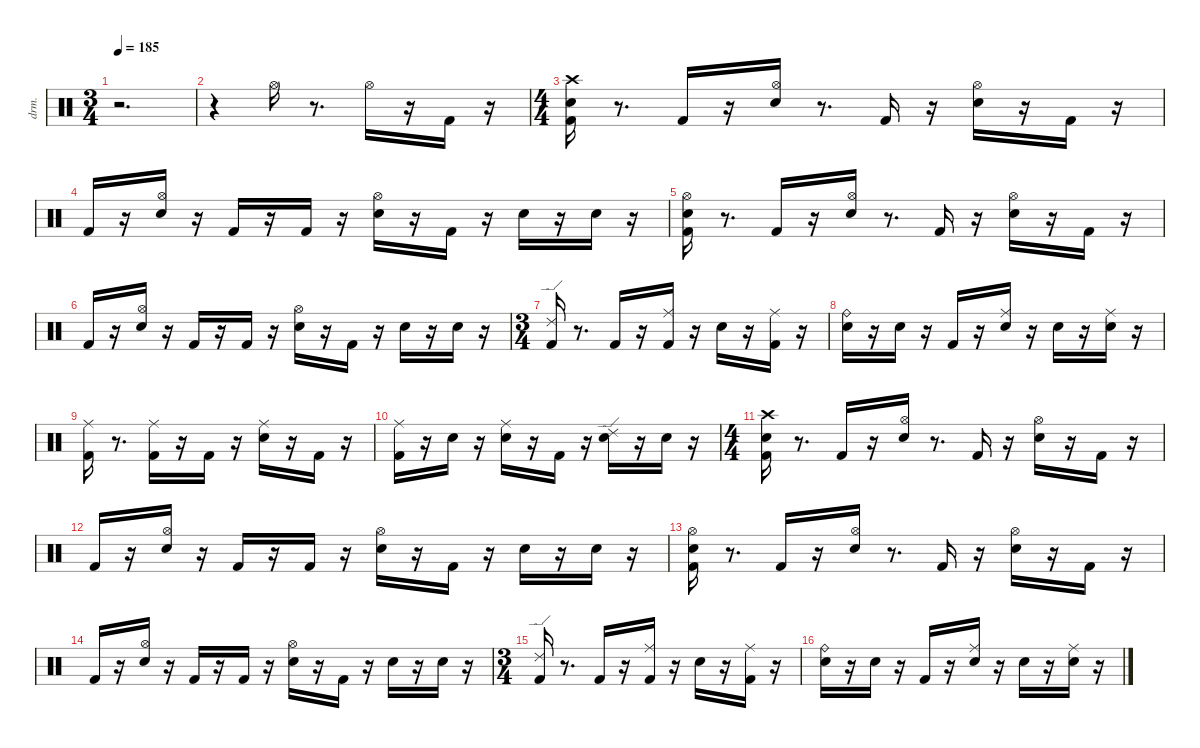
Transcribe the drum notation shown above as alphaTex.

\defaultSystemsLayout 4
\hideDynamics
\bracketExtendMode nobrackets
\otherSystemsTrackNameOrientation horizontal
\track ("drums" "drm.") {instrument percussion}
\staff {score}
\articulation defaults
\ts (3 4)
\tempo 185
\clef neutral
\ks aminor
r.2{d dy fff beam Down} |
r.4{beam Down} "Hi-Hat (open)"{acc #}.16{beam Down} r.8{d beam Down} "Hi-Hat (open)"{acc #}.16{dy ff beam Down} r.16{beam Down} "Kick (hit) 2".16{dy mf beam Up} r.16{beam Up} |
\ts (4 4)
("Kick (hit) 2" "Snare (hit) 2" "Crash high (hit)"{acc #}).16{dy fff beam Down} r.8{d beam Down} "Kick (hit) 2".16{dy ff beam Up} r.16{beam Up} ("Snare (hit) 2" "Hi-Hat (open)"{acc #}).16{beam Down} r.8{d beam Down} "Kick (hit) 2".16{beam Up} r.16{beam Up} ("Snare (hit) 2" "Hi-Hat (open)"{acc #}).16{beam Down} r.16{beam Down} "Kick (hit) 2".16{dy f beam Up} r.16{beam Up} |
"Kick (hit) 2".16{dy fff beam Up} r.16{beam Up} ("Snare (hit) 2" "Hi-Hat (open)"{acc #}).16{dy ff beam Down} r.16{beam Down} "Kick (hit) 2".16{dy mf beam Up} r.16{beam Up} "Kick (hit) 2".16{dy fff beam Up} r.16{beam Up} ("Snare (hit) 2" "Hi-Hat (open)"{acc #}).16{dy ff beam Down} r.16{beam Down} "Kick (hit) 2".16{beam Up} r.16{beam Up} "Snare (hit) 2".16{dy f beam Down} r.16{beam Down} "Snare (hit) 2".16{dy mp beam Down} r.16{beam Down} |
("Kick (hit) 2" "Snare (hit) 2" "Hi-Hat (open)"{acc #}).16{dy fff beam Down} r.8{d beam Down} "Kick (hit) 2".16{dy ff beam Up} r.16{beam Up} ("Snare (hit) 2" "Hi-Hat (open)"{acc #}).16{beam Down} r.8{d beam Down} "Kick (hit) 2".16{beam Up} r.16{beam Up} ("Snare (hit) 2" "Hi-Hat (open)"{acc #}).16{beam Down} r.16{beam Down} "Kick (hit) 2".16{dy f beam Up} r.16{beam Up} |
"Kick (hit) 2".16{dy fff beam Up} r.16{beam Up} ("Snare (hit) 2" "Hi-Hat (open)"{acc #}).16{dy ff beam Down} r.16{beam Down} "Kick (hit) 2".16{dy mf beam Up} r.16{beam Up} "Kick (hit) 2".16{dy fff beam Up} r.16{beam Up} ("Snare (hit) 2" "Hi-Hat (open)"{acc #}).16{dy ff beam Down} r.16{beam Down} "Kick (hit) 2".16{beam Up} r.16{beam Up} "Snare (hit) 2".16{beam Down} r.16{beam Down} "Snare (hit) 2".16{dy mf beam Down} r.16{beam Down} |
\ts (3 4)
("Kick (hit) 2" "Ride (edge) 2").16{dy fff beam Up} r.8{d beam Up} "Kick (hit) 2".16{dy p beam Up} r.16{beam Up} ("Kick (hit) 2" "Ride (middle)"{acc #}).16{dy fff beam Down} r.16{beam Down} "Snare (hit) 2".16{dy mp beam Down} r.16{beam Down} ("Kick (hit) 2" "Ride (middle)"{acc #}).16{dy ff beam Down} r.16{beam Down} |
("Snare (hit) 2" "Ride (bell)").16{dy fff beam Down} r.16{beam Down} "Snare (hit) 2".16{dy ppp beam Down} r.16{beam Down} "Kick (hit) 2".16{dy fff beam Up} r.16{beam Up} ("Snare (hit) 2" "Ride (middle)"{acc #}).16{dy ff beam Down} r.16{beam Down} "Snare (hit) 2".16{dy ppp beam Down} r.16{beam Down} ("Snare (hit) 2" "Ride (middle)"{acc #}).16{dy f beam Down} r.16{beam Down} |
("Kick (hit) 2" "Ride (middle)"{acc #}).16{dy fff beam Down} r.8{d beam Down} ("Kick (hit) 2" "Ride (middle)"{acc #}).16{dy mf beam Down} r.16{beam Down} "Kick (hit) 2".16{dy ff beam Up} r.16{beam Up} ("Snare (hit) 2" "Ride (middle)"{acc #}).16{beam Down} r.16{beam Down} "Kick (hit) 2".16{dy mf beam Up} r.16{beam Up} |
("Kick (hit) 2" "Ride (middle)"{acc #}).16{dy ff beam Down} r.16{beam Down} "Snare (hit) 2".16{dy mf beam Down} r.16{beam Down} ("Snare (hit) 2" "Ride (middle)"{acc #}).16{dy ppp beam Down} r.16{beam Down} "Kick (hit) 2".16{dy ff beam Up} r.16{beam Up} ("Snare (hit) 2" "Ride (edge) 2").16{dy f beam Down} r.16{beam Down} "Snare (hit) 2".16{dy ppp beam Down} r.16{beam Down} |
\ts (4 4)
("Kick (hit) 2" "Snare (hit) 2" "Crash high (hit)"{acc #}).16{dy ff beam Down} r.8{d beam Down} "Kick (hit) 2".16{beam Up} r.16{beam Up} ("Snare (hit) 2" "Hi-Hat (open)"{acc #}).16{beam Down} r.8{d beam Down} "Kick (hit) 2".16{beam Up} r.16{beam Up} ("Snare (hit) 2" "Hi-Hat (open)"{acc #}).16{beam Down} r.16{beam Down} "Kick (hit) 2".16{dy f beam Up} r.16{beam Up} |
"Kick (hit) 2".16{dy fff beam Up} r.16{beam Up} ("Snare (hit) 2" "Hi-Hat (open)"{acc #}).16{dy ff beam Down} r.16{beam Down} "Kick (hit) 2".16{dy mf beam Up} r.16{beam Up} "Kick (hit) 2".16{dy fff beam Up} r.16{beam Up} ("Snare (hit) 2" "Hi-Hat (open)"{acc #}).16{dy ff beam Down} r.16{beam Down} "Kick (hit) 2".16{beam Up} r.16{beam Up} "Snare (hit) 2".16{beam Down} r.16{beam Down} "Snare (hit) 2".16{dy p beam Down} r.16{beam Down} |
("Kick (hit) 2" "Snare (hit) 2" "Hi-Hat (open)"{acc #}).16{dy ff beam Down} r.8{d beam Down} "Kick (hit) 2".16{beam Up} r.16{beam Up} ("Snare (hit) 2" "Hi-Hat (open)"{acc #}).16{beam Down} r.8{d beam Down} "Kick (hit) 2".16{beam Up} r.16{beam Up} ("Snare (hit) 2" "Hi-Hat (open)"{acc #}).16{beam Down} r.16{beam Down} "Kick (hit) 2".16{dy f beam Up} r.16{beam Up} |
"Kick (hit) 2".16{dy fff beam Up} r.16{beam Up} ("Snare (hit) 2" "Hi-Hat (open)"{acc #}).16{dy ff beam Down} r.16{beam Down} "Kick (hit) 2".16{dy mf beam Up} r.16{beam Up} "Kick (hit) 2".16{dy fff beam Up} r.16{beam Up} ("Snare (hit) 2" "Hi-Hat (open)"{acc #}).16{dy ff beam Down} r.16{beam Down} "Kick (hit) 2".16{beam Up} r.16{beam Up} "Snare (hit) 2".16{beam Down} r.16{beam Down} "Snare (hit) 2".16{dy p beam Down} r.16{beam Down} |
\ts (3 4)
("Kick (hit) 2" "Ride (edge) 2").16{dy ff beam Up} r.8{d beam Up} "Kick (hit) 2".16{dy p beam Up} r.16{beam Up} ("Kick (hit) 2" "Ride (middle)"{acc #}).16{dy fff beam Down} r.16{beam Down} "Snare (hit) 2".16{dy mp beam Down} r.16{beam Down} ("Kick (hit) 2" "Ride (middle)"{acc #}).16{dy ff beam Down} r.16{beam Down} |
("Snare (hit) 2" "Ride (bell)").16{beam Down} r.16{beam Down} "Snare (hit) 2".16{dy ppp beam Down} r.16{beam Down} "Kick (hit) 2".16{dy fff beam Up} r.16{beam Up} ("Snare (hit) 2" "Ride (middle)"{acc #}).16{dy ff beam Down} r.16{beam Down} "Snare (hit) 2".16{dy ppp beam Down} r.16{beam Down} ("Snare (hit) 2" "Ride (middle)"{acc #}).16{dy f beam Down} r.16{beam Down}
